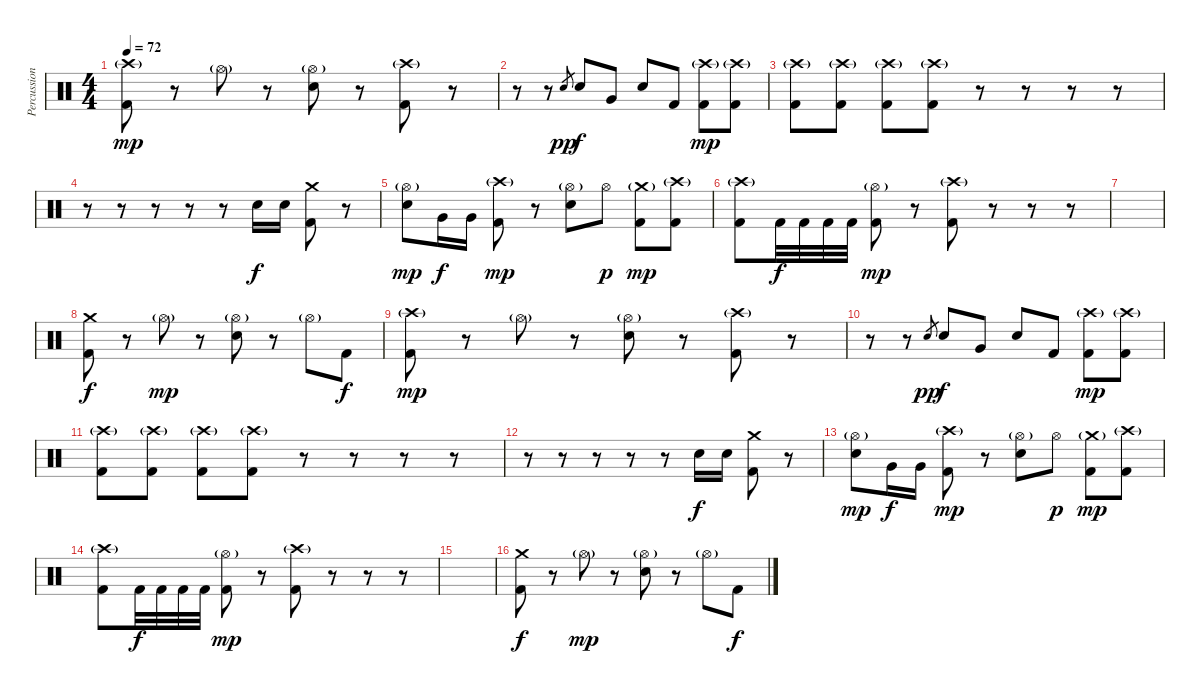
\track ("Percussion" "Percussion") {instrument percussion}
\staff {score}
\articulation defaults
\ts (4 4)
\tempo 72
\clef neutral
\ks c
("Crash high (hit)"{g} "Kick (hit) 2").8{dy mp} r.8 "Hi-Hat (open)"{g}.8 r.8 ("Hi-Hat (open)"{g} "Electric Snare (hit)").8 r.8 ("Crash high (hit)"{g} "Kick (hit) 2").8 r.8 |
r.8 r.8 "Electric Snare (hit)".8{gr dy pp} "Electric Snare (hit)".8{dy f} "Very Low Tom (hit)".8 "Electric Snare (hit)".8 "Kick (hit) 2".8 ("Crash high (hit)"{g} "Kick (hit) 2").8{dy mp} ("Crash high (hit)"{g} "Kick (hit) 2").8 |
("Crash high (hit)"{g} "Kick (hit) 2").8 ("Crash high (hit)"{g} "Kick (hit) 2").8 ("Crash high (hit)"{g} "Kick (hit) 2").8 ("Crash high (hit)"{g} "Kick (hit) 2").8 r.8 r.8 r.8 r.8 |
r.8 r.8 r.8 r.8 r.8 "Electric Snare (hit)".16{dy f} "Electric Snare (hit)".16 ("Crash medium (hit)" "Kick (hit) 2").8 r.8 |
("Hi-Hat (open)"{g} "Electric Snare (hit)").8{dy mp} "Very Low Tom (hit)".16{dy f} "Very Low Tom (hit)".16 ("Crash high (hit)"{g} "Kick (hit) 2").8{dy mp} r.8 ("Hi-Hat (open)"{g} "Electric Snare (hit)").8 "Hi-Hat (open)".8{dy p} ("Crash medium (hit)"{g} "Kick (hit) 2").8{dy mp} ("Crash high (hit)"{g} "Kick (hit) 2").8 |
("Crash high (hit)"{g} "Kick (hit) 2").8 "Kick (hit) 2".32{dy f} "Kick (hit) 2".32 "Kick (hit) 2".32 "Kick (hit) 2".32 ("Hi-Hat (open)"{g} "Kick (hit) 2").8{dy mp} r.8 ("Crash high (hit)"{g} "Kick (hit) 2").8 r.8 r.8 r.8 |
|
("Crash medium (hit)" "Kick (hit) 2").8{dy f} r.8 "Hi-Hat (open)"{g}.8{dy mp} r.8 ("Hi-Hat (open)"{g} "Electric Snare (hit)").8 r.8 "Hi-Hat (open)"{g}.8 "Kick (hit) 2".8{dy f} |
("Crash high (hit)"{g} "Kick (hit) 2").8{dy mp} r.8 "Hi-Hat (open)"{g}.8 r.8 ("Hi-Hat (open)"{g} "Electric Snare (hit)").8 r.8 ("Crash high (hit)"{g} "Kick (hit) 2").8 r.8 |
r.8 r.8 "Electric Snare (hit)".8{gr dy pp} "Electric Snare (hit)".8{dy f} "Very Low Tom (hit)".8 "Electric Snare (hit)".8 "Kick (hit) 2".8 ("Crash high (hit)"{g} "Kick (hit) 2").8{dy mp} ("Crash high (hit)"{g} "Kick (hit) 2").8 |
("Crash high (hit)"{g} "Kick (hit) 2").8 ("Crash high (hit)"{g} "Kick (hit) 2").8 ("Crash high (hit)"{g} "Kick (hit) 2").8 ("Crash high (hit)"{g} "Kick (hit) 2").8 r.8 r.8 r.8 r.8 |
r.8 r.8 r.8 r.8 r.8 "Electric Snare (hit)".16{dy f} "Electric Snare (hit)".16 ("Crash medium (hit)" "Kick (hit) 2").8 r.8 |
("Hi-Hat (open)"{g} "Electric Snare (hit)").8{dy mp} "Very Low Tom (hit)".16{dy f} "Very Low Tom (hit)".16 ("Crash high (hit)"{g} "Kick (hit) 2").8{dy mp} r.8 ("Hi-Hat (open)"{g} "Electric Snare (hit)").8 "Hi-Hat (open)".8{dy p} ("Crash medium (hit)"{g} "Kick (hit) 2").8{dy mp} ("Crash high (hit)"{g} "Kick (hit) 2").8 |
("Crash high (hit)"{g} "Kick (hit) 2").8 "Kick (hit) 2".32{dy f} "Kick (hit) 2".32 "Kick (hit) 2".32 "Kick (hit) 2".32 ("Hi-Hat (open)"{g} "Kick (hit) 2").8{dy mp} r.8 ("Crash high (hit)"{g} "Kick (hit) 2").8 r.8 r.8 r.8 |
|
("Crash medium (hit)" "Kick (hit) 2").8{dy f} r.8 "Hi-Hat (open)"{g}.8{dy mp} r.8 ("Hi-Hat (open)"{g} "Electric Snare (hit)").8 r.8 "Hi-Hat (open)"{g}.8 "Kick (hit) 2".8{dy f}
